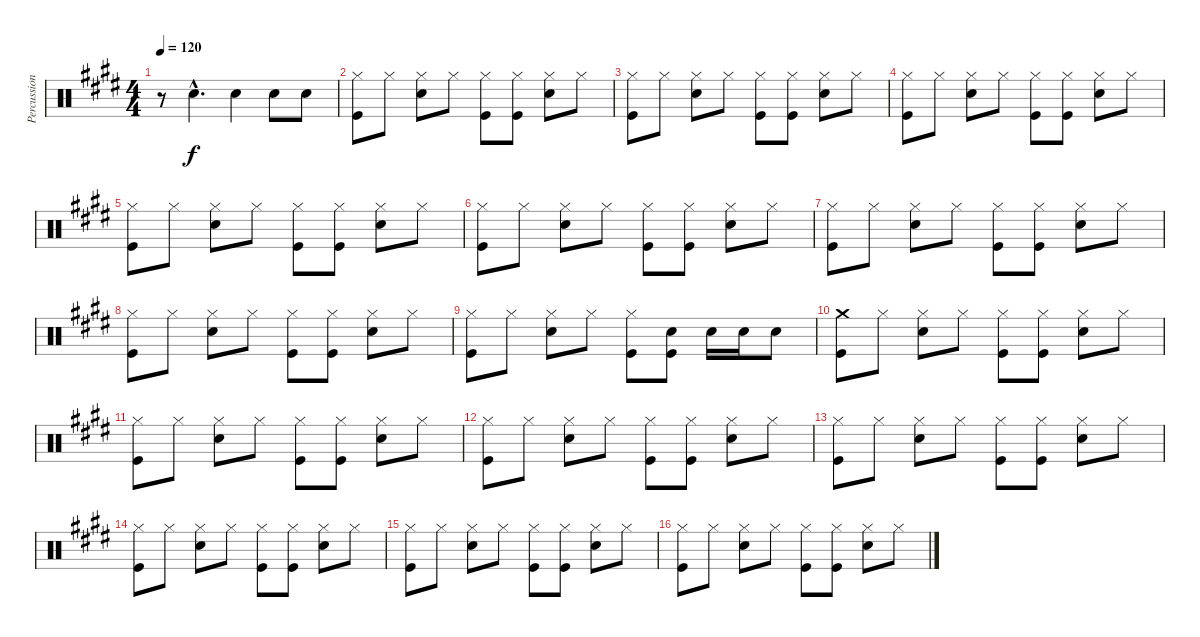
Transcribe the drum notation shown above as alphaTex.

\track ("Percussion" "Percussion") {instrument percussion}
\staff {score}
\articulation defaults
\ts (4 4)
\tempo 120
\clef neutral
\ks e
r.8{dy f} "Snare (hit) 2"{hac}.4{d} "Snare (hit) 2".4 "Snare (hit) 2".8 "Snare (hit) 2".8 |
("Hi-Hat (closed)" "Kick (hit)").8 "Hi-Hat (closed)".8 ("Hi-Hat (closed)" "Snare (hit) 2").8 "Hi-Hat (closed)".8 ("Hi-Hat (closed)" "Kick (hit)").8 ("Hi-Hat (closed)" "Kick (hit)").8 ("Hi-Hat (closed)" "Snare (hit) 2").8 "Hi-Hat (closed)".8 |
("Hi-Hat (closed)" "Kick (hit)").8 "Hi-Hat (closed)".8 ("Hi-Hat (closed)" "Snare (hit) 2").8 "Hi-Hat (closed)".8 ("Hi-Hat (closed)" "Kick (hit)").8 ("Hi-Hat (closed)" "Kick (hit)").8 ("Hi-Hat (closed)" "Snare (hit) 2").8 "Hi-Hat (closed)".8 |
("Hi-Hat (closed)" "Kick (hit)").8 "Hi-Hat (closed)".8 ("Hi-Hat (closed)" "Snare (hit) 2").8 "Hi-Hat (closed)".8 ("Hi-Hat (closed)" "Kick (hit)").8 ("Hi-Hat (closed)" "Kick (hit)").8 ("Hi-Hat (closed)" "Snare (hit) 2").8 "Hi-Hat (closed)".8 |
("Hi-Hat (closed)" "Kick (hit)").8 "Hi-Hat (closed)".8 ("Hi-Hat (closed)" "Snare (hit) 2").8 "Hi-Hat (closed)".8 ("Hi-Hat (closed)" "Kick (hit)").8 ("Hi-Hat (closed)" "Kick (hit)").8 ("Hi-Hat (closed)" "Snare (hit) 2").8 "Hi-Hat (closed)".8 |
("Hi-Hat (closed)" "Kick (hit)").8 "Hi-Hat (closed)".8 ("Hi-Hat (closed)" "Snare (hit) 2").8 "Hi-Hat (closed)".8 ("Hi-Hat (closed)" "Kick (hit)").8 ("Hi-Hat (closed)" "Kick (hit)").8 ("Hi-Hat (closed)" "Snare (hit) 2").8 "Hi-Hat (closed)".8 |
("Hi-Hat (closed)" "Kick (hit)").8 "Hi-Hat (closed)".8 ("Hi-Hat (closed)" "Snare (hit) 2").8 "Hi-Hat (closed)".8 ("Hi-Hat (closed)" "Kick (hit)").8 ("Hi-Hat (closed)" "Kick (hit)").8 ("Hi-Hat (closed)" "Snare (hit) 2").8 "Hi-Hat (closed)".8 |
("Hi-Hat (closed)" "Kick (hit)").8 "Hi-Hat (closed)".8 ("Hi-Hat (closed)" "Snare (hit) 2").8 "Hi-Hat (closed)".8 ("Hi-Hat (closed)" "Kick (hit)").8 ("Hi-Hat (closed)" "Kick (hit)").8 ("Hi-Hat (closed)" "Snare (hit) 2").8 "Hi-Hat (closed)".8 |
("Hi-Hat (closed)" "Kick (hit)").8 "Hi-Hat (closed)".8 ("Hi-Hat (closed)" "Snare (hit) 2").8 "Hi-Hat (closed)".8 ("Hi-Hat (closed)" "Kick (hit)").8 ("Snare (hit) 2" "Kick (hit)").8 "Snare (hit) 2".16 "Snare (hit) 2".16 "Snare (hit) 2".8 |
("Crash medium (hit)" "Kick (hit)").8 "Hi-Hat (closed)".8 ("Hi-Hat (closed)" "Snare (hit) 2").8 "Hi-Hat (closed)".8 ("Hi-Hat (closed)" "Kick (hit)").8 ("Hi-Hat (closed)" "Kick (hit)").8 ("Hi-Hat (closed)" "Snare (hit) 2").8 "Hi-Hat (closed)".8 |
("Hi-Hat (closed)" "Kick (hit)").8 "Hi-Hat (closed)".8 ("Hi-Hat (closed)" "Snare (hit) 2").8 "Hi-Hat (closed)".8 ("Hi-Hat (closed)" "Kick (hit)").8 ("Hi-Hat (closed)" "Kick (hit)").8 ("Hi-Hat (closed)" "Snare (hit) 2").8 "Hi-Hat (closed)".8 |
("Hi-Hat (closed)" "Kick (hit)").8 "Hi-Hat (closed)".8 ("Hi-Hat (closed)" "Snare (hit) 2").8 "Hi-Hat (closed)".8 ("Hi-Hat (closed)" "Kick (hit)").8 ("Hi-Hat (closed)" "Kick (hit)").8 ("Hi-Hat (closed)" "Snare (hit) 2").8 "Hi-Hat (closed)".8 |
("Hi-Hat (closed)" "Kick (hit)").8 "Hi-Hat (closed)".8 ("Hi-Hat (closed)" "Snare (hit) 2").8 "Hi-Hat (closed)".8 ("Hi-Hat (closed)" "Kick (hit)").8 ("Hi-Hat (closed)" "Kick (hit)").8 ("Hi-Hat (closed)" "Snare (hit) 2").8 "Hi-Hat (closed)".8 |
("Hi-Hat (closed)" "Kick (hit)").8 "Hi-Hat (closed)".8 ("Hi-Hat (closed)" "Snare (hit) 2").8 "Hi-Hat (closed)".8 ("Hi-Hat (closed)" "Kick (hit)").8 ("Hi-Hat (closed)" "Kick (hit)").8 ("Hi-Hat (closed)" "Snare (hit) 2").8 "Hi-Hat (closed)".8 |
("Hi-Hat (closed)" "Kick (hit)").8 "Hi-Hat (closed)".8 ("Hi-Hat (closed)" "Snare (hit) 2").8 "Hi-Hat (closed)".8 ("Hi-Hat (closed)" "Kick (hit)").8 ("Hi-Hat (closed)" "Kick (hit)").8 ("Hi-Hat (closed)" "Snare (hit) 2").8 "Hi-Hat (closed)".8 |
("Hi-Hat (closed)" "Kick (hit)").8 "Hi-Hat (closed)".8 ("Hi-Hat (closed)" "Snare (hit) 2").8 "Hi-Hat (closed)".8 ("Hi-Hat (closed)" "Kick (hit)").8 ("Hi-Hat (closed)" "Kick (hit)").8 ("Hi-Hat (closed)" "Snare (hit) 2").8 "Hi-Hat (closed)".8
